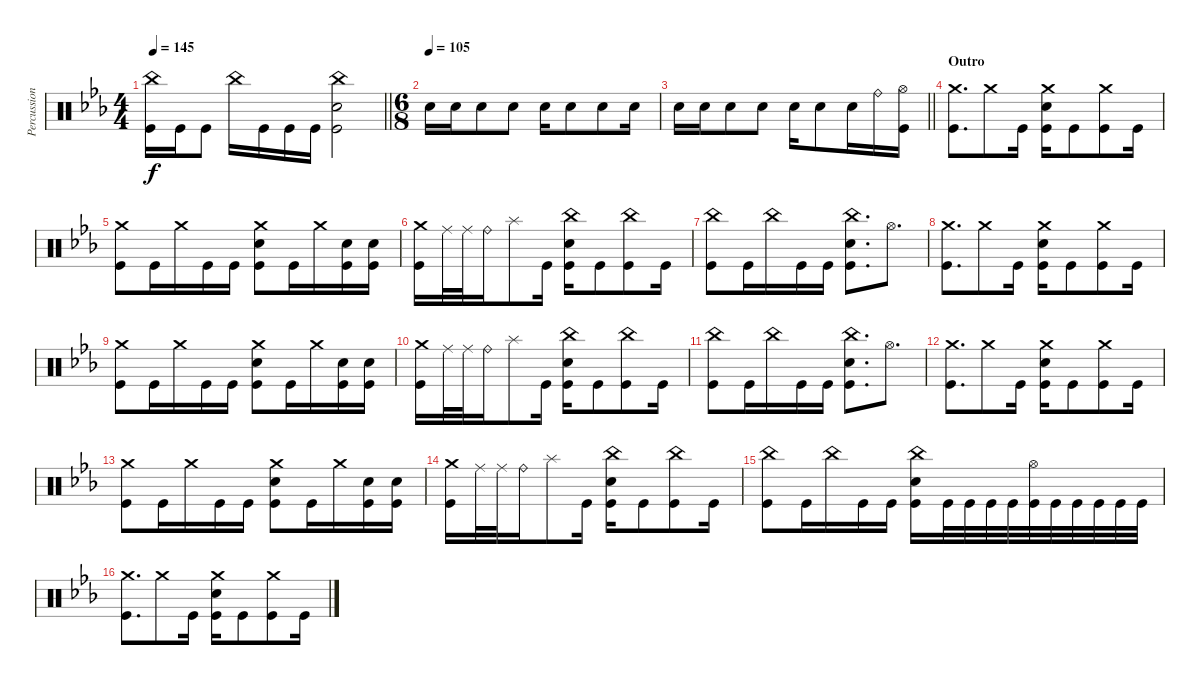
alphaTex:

\track ("Percussion" "Percussion") {instrument percussion}
\staff {score}
\articulation defaults
\ts (4 4)
\tempo 145
\clef neutral
\barLineRight lightlight
\ks eb
("China (hit)" "Kick (hit)").16{dy f} "Kick (hit)".16 "Kick (hit)".8 "China (hit)".16 "Kick (hit)".16 "Kick (hit)".16 "Kick (hit)".16 ("China (hit)" "Electric Snare (hit)" "Kick (hit)").2 |
\ts (6 8)
\section ("" "")
\tempo (105)
"Electric Snare (hit)".16 "Electric Snare (hit)".16 "Electric Snare (hit)".8 "Electric Snare (hit)".8 "Electric Snare (hit)".16 "Electric Snare (hit)".8 "Electric Snare (hit)".8 "Electric Snare (hit)".16 |
\barLineRight lightlight "Electric Snare (hit)".16 "Electric Snare (hit)".16 "Electric Snare (hit)".8 "Electric Snare (hit)".8 "Electric Snare (hit)".16 "Electric Snare (hit)".8 "Electric Snare (hit)".16 "Ride (bell)".16
("Hi-Hat (open)" "Kick (hit)").16 |
\section ("" "Outro")
("Crash medium (hit)" "Kick (hit)").8{d} "Crash medium (hit)".8 "Kick (hit)".16 ("Crash medium (hit)" "Electric Snare (hit)" "Kick (hit)").16 "Kick (hit)".8 ("Crash medium (hit)" "Kick (hit)").8 "Kick (hit)".16 |
("Crash medium (hit)" "Kick (hit)").8 "Kick (hit)".16 "Crash medium (hit)".16 "Kick (hit)".16 "Kick (hit)".16 ("Crash medium (hit)" "Electric Snare (hit)" "Kick (hit)").8 "Kick (hit)".16 "Crash medium (hit)".16 ("Electric Snare (hit)" "Kick (hit)").16 ("Electric Snare (hit)" "Kick (hit)").16 |
("Crash medium (hit)" "Kick (hit)").16 "Ride (middle)".32 "Ride (middle)".32 "Ride (bell)".16 "Splash (hit)".8 "Kick (hit)".16 ("China (hit)" "Electric Snare (hit)" "Kick (hit)").16 "Kick (hit)".8 ("China (hit)" "Kick (hit)").8 "Kick (hit)".16 |
("China (hit)" "Kick (hit)").8 "Kick (hit)".16 "China (hit)".16 "Kick (hit)".16 "Kick (hit)".16 ("China (hit)" "Electric Snare (hit)" "Kick (hit)").8{d} "Hi-Hat (open)".8{d} |
("Crash medium (hit)" "Kick (hit)").8{d} "Crash medium (hit)".8 "Kick (hit)".16 ("Crash medium (hit)" "Electric Snare (hit)" "Kick (hit)").16 "Kick (hit)".8 ("Crash medium (hit)" "Kick (hit)").8 "Kick (hit)".16 |
("Crash medium (hit)" "Kick (hit)").8 "Kick (hit)".16 "Crash medium (hit)".16 "Kick (hit)".16 "Kick (hit)".16 ("Crash medium (hit)" "Electric Snare (hit)" "Kick (hit)").8 "Kick (hit)".16 "Crash medium (hit)".16 ("Electric Snare (hit)" "Kick (hit)").16 ("Electric Snare (hit)" "Kick (hit)").16 |
("Crash medium (hit)" "Kick (hit)").16 "Ride (middle)".32 "Ride (middle)".32 "Ride (bell)".16 "Splash (hit)".8 "Kick (hit)".16 ("China (hit)" "Electric Snare (hit)" "Kick (hit)").16 "Kick (hit)".8 ("China (hit)" "Kick (hit)").8 "Kick (hit)".16 |
("China (hit)" "Kick (hit)").8 "Kick (hit)".16 "China (hit)".16 "Kick (hit)".16 "Kick (hit)".16 ("China (hit)" "Electric Snare (hit)" "Kick (hit)").8{d} "Hi-Hat (open)".8{d} |
("Crash medium (hit)" "Kick (hit)").8{d} "Crash medium (hit)".8 "Kick (hit)".16 ("Crash medium (hit)" "Electric Snare (hit)" "Kick (hit)").16 "Kick (hit)".8 ("Crash medium (hit)" "Kick (hit)").8 "Kick (hit)".16 |
("Crash medium (hit)" "Kick (hit)").8 "Kick (hit)".16 "Crash medium (hit)".16 "Kick (hit)".16 "Kick (hit)".16 ("Crash medium (hit)" "Electric Snare (hit)" "Kick (hit)").8 "Kick (hit)".16 "Crash medium (hit)".16 ("Electric Snare (hit)" "Kick (hit)").16 ("Electric Snare (hit)" "Kick (hit)").16 |
("Crash medium (hit)" "Kick (hit)").16{volume 8} "Ride (middle)".32 "Ride (middle)".32 "Ride (bell)".16 "Splash (hit)".8 "Kick (hit)".16 ("China (hit)" "Electric Snare (hit)" "Kick (hit)").16 "Kick (hit)".8 ("China (hit)" "Kick (hit)").8 "Kick (hit)".16 |
("China (hit)" "Kick (hit)").8 "Kick (hit)".16 "China (hit)".16 "Kick (hit)".16 "Kick (hit)".16 ("China (hit)" "Electric Snare (hit)" "Kick (hit)").16 "Kick (hit)".32 "Kick (hit)".32 "Kick (hit)".32 "Kick (hit)".32 ("Hi-Hat (open)" "Kick (hit)").32 "Kick (hit)".32 "Kick (hit)".32 "Kick (hit)".32 "Kick (hit)".32 "Kick (hit)".32 |
("Crash medium (hit)" "Kick (hit)").8{d} "Crash medium (hit)".8 "Kick (hit)".16 ("Crash medium (hit)" "Electric Snare (hit)" "Kick (hit)").16 "Kick (hit)".8 ("Crash medium (hit)" "Kick (hit)").8 "Kick (hit)".16
